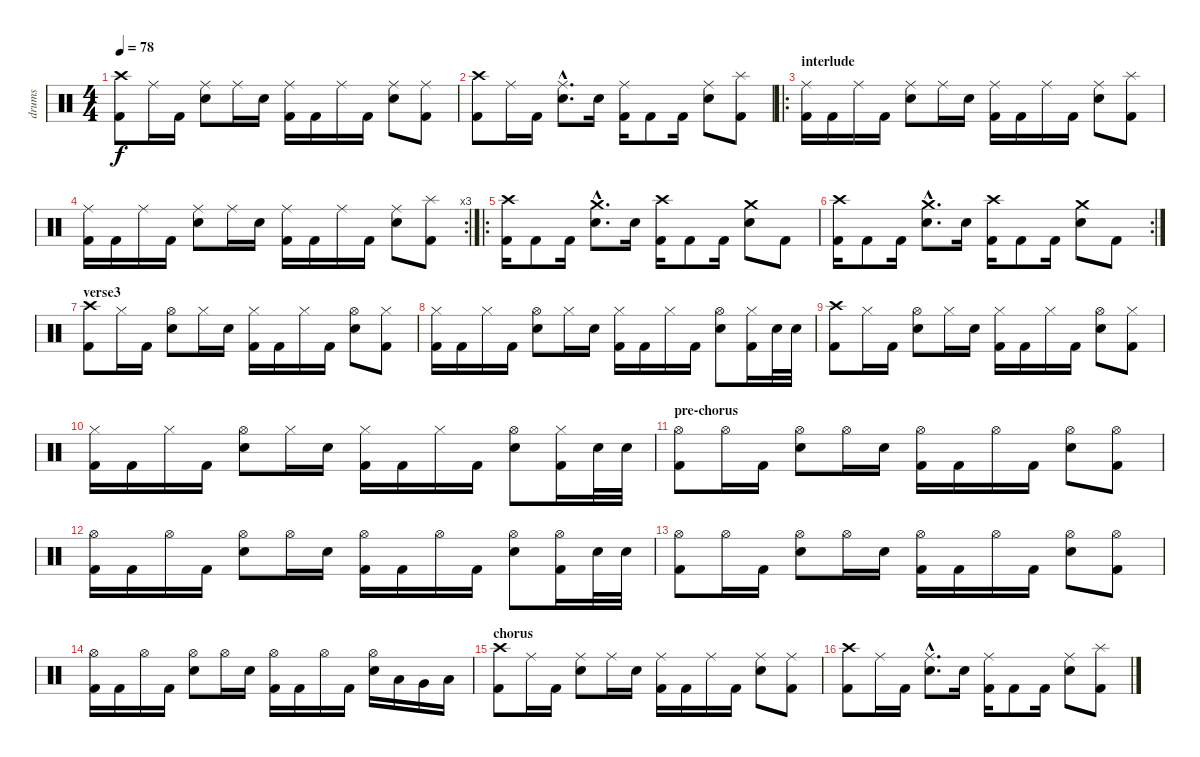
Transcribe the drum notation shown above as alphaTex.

\track ("drums" "drums") {instrument percussion}
\staff {score}
\articulation defaults
\ts (4 4)
\tempo 78
\clef neutral
\ks c
("Crash high (hit)" "Kick (hit) 2").8{dy f} "Ride (middle)".16 "Kick (hit) 2".16 ("Ride (middle)" "Electric Snare (hit)").8 "Ride (middle)".16 "Electric Snare (hit)".16 ("Ride (middle)" "Kick (hit) 2").16 "Kick (hit) 2".16 "Ride (middle)".16 "Kick (hit) 2".16 ("Ride (middle)" "Electric Snare (hit)").8 ("Ride (middle)" "Kick (hit) 2").8 |
("Crash high (hit)" "Kick (hit) 2").8 "Ride (middle)".16 "Kick (hit) 2".16 ("Ride (middle)"{hac} "Electric Snare (hit)"{hac}).8{d} "Electric Snare (hit)".16 ("Ride (middle)" "Kick (hit) 2").16 "Kick (hit) 2".8 "Kick (hit) 2".16 ("Ride (middle)" "Electric Snare (hit)").8 ("Splash (hit)" "Kick (hit) 2").8 |
\ro
\section ("" "interlude")
("Ride (middle)" "Kick (hit) 2").16 "Kick (hit) 2".16 "Ride (middle)".16 "Kick (hit) 2".16 ("Ride (middle)" "Electric Snare (hit)").8 "Ride (middle)".16 "Electric Snare (hit)".16 ("Ride (middle)" "Kick (hit) 2").16 "Kick (hit) 2".16 "Ride (middle)".16 "Kick (hit) 2".16 ("Ride (middle)" "Electric Snare (hit)").8 ("Splash (hit)" "Kick (hit) 2").8 |
\rc 3
("Ride (middle)" "Kick (hit) 2").16 "Kick (hit) 2".16 "Ride (middle)".16 "Kick (hit) 2".16 ("Ride (middle)" "Electric Snare (hit)").8 "Ride (middle)".16 "Electric Snare (hit)".16 ("Ride (middle)" "Kick (hit) 2").16 "Kick (hit) 2".16 "Ride (middle)".16 "Kick (hit) 2".16 ("Ride (middle)" "Electric Snare (hit)").8 ("Splash (hit)" "Kick (hit) 2").8 |
\ro
("Crash high (hit)" "Kick (hit) 2").16 "Kick (hit) 2".8 "Kick (hit) 2".16 ("Crash medium (hit)"{hac} "Electric Snare (hit)"{hac}).8{d} "Electric Snare (hit)".16 ("Crash high (hit)" "Kick (hit) 2").16 "Kick (hit) 2".8 "Kick (hit) 2".16 ("Crash medium (hit)" "Electric Snare (hit)").8 "Kick (hit) 2".8 |
\rc 2
("Crash high (hit)" "Kick (hit) 2").16 "Kick (hit) 2".8 "Kick (hit) 2".16 ("Crash medium (hit)"{hac} "Electric Snare (hit)"{hac}).8{d} "Electric Snare (hit)".16 ("Crash high (hit)" "Kick (hit) 2").16 "Kick (hit) 2".8 "Kick (hit) 2".16 ("Crash medium (hit)" "Electric Snare (hit)").8 "Kick (hit) 2".8 |
\section ("" "verse3")
("Crash high (hit)" "Kick (hit) 2").8 "Hi-Hat (closed)".16 "Kick (hit) 2".16 ("Hi-Hat (open)" "Electric Snare (hit)").8 "Hi-Hat (closed)".16 "Electric Snare (hit)".16 ("Hi-Hat (closed)" "Kick (hit) 2").16 "Kick (hit) 2".16 "Hi-Hat (closed)".16 "Kick (hit) 2".16 ("Hi-Hat (open)" "Electric Snare (hit)").8 ("Hi-Hat (closed)" "Kick (hit) 2").8 |
("Hi-Hat (closed)" "Kick (hit) 2").16 "Kick (hit) 2".16 "Hi-Hat (closed)".16 "Kick (hit) 2".16 ("Hi-Hat (open)" "Electric Snare (hit)").8 "Hi-Hat (closed)".16 "Electric Snare (hit)".16 ("Hi-Hat (closed)" "Kick (hit) 2").16 "Kick (hit) 2".16 "Hi-Hat (closed)".16 "Kick (hit) 2".16 ("Hi-Hat (open)" "Electric Snare (hit)").8 ("Hi-Hat (closed)" "Kick (hit) 2").16 "Electric Snare (hit)".32 "Electric Snare (hit)".32 |
("Crash high (hit)" "Kick (hit) 2").8 "Hi-Hat (closed)".16 "Kick (hit) 2".16 ("Hi-Hat (open)" "Electric Snare (hit)").8 "Hi-Hat (closed)".16 "Electric Snare (hit)".16 ("Hi-Hat (closed)" "Kick (hit) 2").16 "Kick (hit) 2".16 "Hi-Hat (closed)".16 "Kick (hit) 2".16 ("Hi-Hat (open)" "Electric Snare (hit)").8 ("Hi-Hat (closed)" "Kick (hit) 2").8 |
("Hi-Hat (closed)" "Kick (hit) 2").16 "Kick (hit) 2".16 "Hi-Hat (closed)".16 "Kick (hit) 2".16 ("Hi-Hat (open)" "Electric Snare (hit)").8 "Hi-Hat (closed)".16 "Electric Snare (hit)".16 ("Hi-Hat (closed)" "Kick (hit) 2").16 "Kick (hit) 2".16 "Hi-Hat (closed)".16 "Kick (hit) 2".16 ("Hi-Hat (open)" "Electric Snare (hit)").8 ("Hi-Hat (closed)" "Kick (hit) 2").16 "Electric Snare (hit)".32 "Electric Snare (hit)".32 |
\section ("" "pre-chorus")
("Hi-Hat (open)" "Kick (hit) 2").8 "Hi-Hat (open)".16 "Kick (hit) 2".16 ("Hi-Hat (open)" "Electric Snare (hit)").8 "Hi-Hat (open)".16 "Electric Snare (hit)".16 ("Hi-Hat (open)" "Kick (hit) 2").16 "Kick (hit) 2".16 "Hi-Hat (open)".16 "Kick (hit) 2".16 ("Hi-Hat (open)" "Electric Snare (hit)").8 ("Hi-Hat (open)" "Kick (hit) 2").8 |
("Hi-Hat (open)" "Kick (hit) 2").16 "Kick (hit) 2".16 "Hi-Hat (open)".16 "Kick (hit) 2".16 ("Hi-Hat (open)" "Electric Snare (hit)").8 "Hi-Hat (open)".16 "Electric Snare (hit)".16 ("Hi-Hat (open)" "Kick (hit) 2").16 "Kick (hit) 2".16 "Hi-Hat (open)".16 "Kick (hit) 2".16 ("Hi-Hat (open)" "Electric Snare (hit)").8 ("Hi-Hat (open)" "Kick (hit) 2").16 "Electric Snare (hit)".32 "Electric Snare (hit)".32 |
("Hi-Hat (open)" "Kick (hit) 2").8 "Hi-Hat (open)".16 "Kick (hit) 2".16 ("Hi-Hat (open)" "Electric Snare (hit)").8 "Hi-Hat (open)".16 "Electric Snare (hit)".16 ("Hi-Hat (open)" "Kick (hit) 2").16 "Kick (hit) 2".16 "Hi-Hat (open)".16 "Kick (hit) 2".16 ("Hi-Hat (open)" "Electric Snare (hit)").8 ("Hi-Hat (open)" "Kick (hit) 2").8 |
("Hi-Hat (open)" "Kick (hit) 2").16 "Kick (hit) 2".16 "Hi-Hat (open)".16 "Kick (hit) 2".16 ("Hi-Hat (open)" "Electric Snare (hit)").8 "Hi-Hat (open)".16 "Electric Snare (hit)".16 ("Hi-Hat (open)" "Kick (hit) 2").16 "Kick (hit) 2".16 "Hi-Hat (open)".16 "Kick (hit) 2".16 ("Hi-Hat (open)" "Electric Snare (hit)").16 "Low Tom (hit)".16 "Very Low Tom (hit)".16 "Low Floor Tom (hit)".16 |
\section ("" "chorus")
("Crash high (hit)" "Kick (hit) 2").8 "Ride (middle)".16 "Kick (hit) 2".16 ("Ride (middle)" "Electric Snare (hit)").8 "Ride (middle)".16 "Electric Snare (hit)".16 ("Ride (middle)" "Kick (hit) 2").16 "Kick (hit) 2".16 "Ride (middle)".16 "Kick (hit) 2".16 ("Ride (middle)" "Electric Snare (hit)").8 ("Ride (middle)" "Kick (hit) 2").8 |
("Crash high (hit)" "Kick (hit) 2").8 "Ride (middle)".16 "Kick (hit) 2".16 ("Ride (middle)"{hac} "Electric Snare (hit)"{hac}).8{d} "Electric Snare (hit)".16 ("Ride (middle)" "Kick (hit) 2").16 "Kick (hit) 2".8 "Kick (hit) 2".16 ("Ride (middle)" "Electric Snare (hit)").8 ("Splash (hit)" "Kick (hit) 2").8
